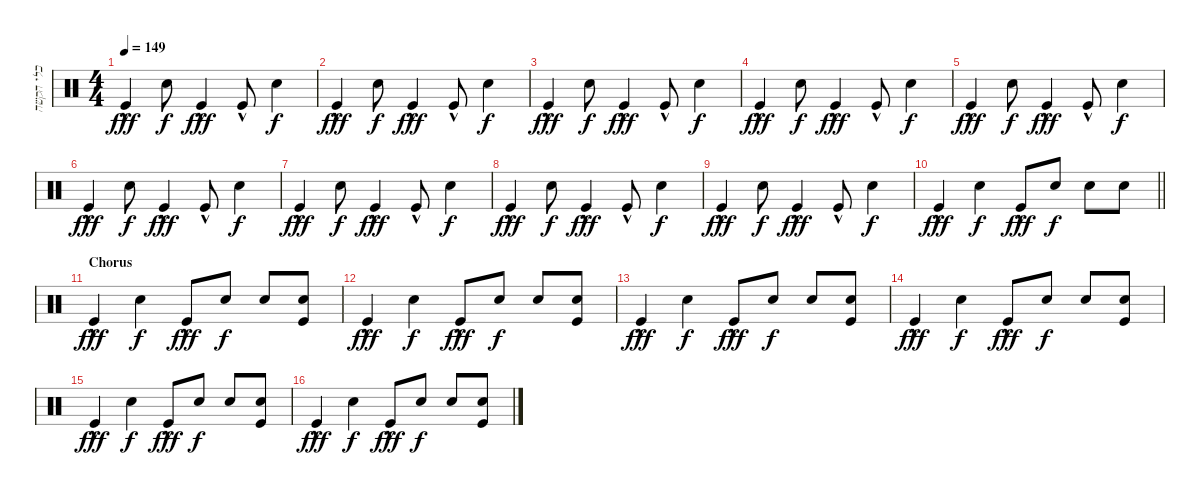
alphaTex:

\track ("כלי הקשה" "כלי הקשה") {instrument percussion}
\staff {score}
\articulation defaults
\ts (4 4)
\tempo 149
\clef neutral
\ks c "Kick (hit)"{hac}.4{dy fff} "Electric Snare (hit)".8{dy f} "Kick (hit)"{hac}.4{dy fff} "Kick (hit)"{hac}.8 "Electric Snare (hit)".4{dy f}
|
"Kick (hit)"{hac}.4{dy fff} "Electric Snare (hit)".8{dy f} "Kick (hit)"{hac}.4{dy fff} "Kick (hit)"{hac}.8 "Electric Snare (hit)".4{dy f} |
"Kick (hit)"{hac}.4{dy fff} "Electric Snare (hit)".8{dy f} "Kick (hit)"{hac}.4{dy fff} "Kick (hit)"{hac}.8 "Electric Snare (hit)".4{dy f} |
"Kick (hit)"{hac}.4{dy fff} "Electric Snare (hit)".8{dy f} "Kick (hit)"{hac}.4{dy fff} "Kick (hit)"{hac}.8 "Electric Snare (hit)".4{dy f} |
"Kick (hit)"{hac}.4{dy fff} "Electric Snare (hit)".8{dy f} "Kick (hit)"{hac}.4{dy fff} "Kick (hit)"{hac}.8 "Electric Snare (hit)".4{dy f} |
"Kick (hit)"{hac}.4{dy fff} "Electric Snare (hit)".8{dy f} "Kick (hit)"{hac}.4{dy fff} "Kick (hit)"{hac}.8 "Electric Snare (hit)".4{dy f} |
"Kick (hit)"{hac}.4{dy fff} "Electric Snare (hit)".8{dy f} "Kick (hit)"{hac}.4{dy fff} "Kick (hit)"{hac}.8 "Electric Snare (hit)".4{dy f} |
"Kick (hit)"{hac}.4{dy fff} "Electric Snare (hit)".8{dy f} "Kick (hit)"{hac}.4{dy fff} "Kick (hit)"{hac}.8 "Electric Snare (hit)".4{dy f} |
"Kick (hit)"{hac}.4{dy fff} "Electric Snare (hit)".8{dy f} "Kick (hit)"{hac}.4{dy fff} "Kick (hit)"{hac}.8 "Electric Snare (hit)".4{dy f} |
\barLineRight lightlight "Kick (hit)"{hac}.4{dy fff} "Electric Snare (hit)".4{dy f} "Kick (hit)"{hac}.8{dy fff} "Electric Snare (hit)".8{dy f} "Electric Snare (hit)".8 "Electric Snare (hit)".8
|
\section ("" "Chorus")
"Kick (hit)"{hac}.4{dy fff} "Electric Snare (hit)".4{dy f} "Kick (hit)"{hac}.8{dy fff} "Electric Snare (hit)".8{dy f} "Electric Snare (hit)".8 ("Electric Snare (hit)" "Kick (hit)").8 |
"Kick (hit)"{hac}.4{dy fff} "Electric Snare (hit)".4{dy f} "Kick (hit)"{hac}.8{dy fff} "Electric Snare (hit)".8{dy f} "Electric Snare (hit)".8 ("Electric Snare (hit)" "Kick (hit)").8 |
"Kick (hit)"{hac}.4{dy fff} "Electric Snare (hit)".4{dy f} "Kick (hit)"{hac}.8{dy fff} "Electric Snare (hit)".8{dy f} "Electric Snare (hit)".8 ("Electric Snare (hit)" "Kick (hit)").8 |
"Kick (hit)"{hac}.4{dy fff} "Electric Snare (hit)".4{dy f} "Kick (hit)"{hac}.8{dy fff} "Electric Snare (hit)".8{dy f} "Electric Snare (hit)".8 ("Electric Snare (hit)" "Kick (hit)").8 |
"Kick (hit)"{hac}.4{dy fff} "Electric Snare (hit)".4{dy f} "Kick (hit)"{hac}.8{dy fff} "Electric Snare (hit)".8{dy f} "Electric Snare (hit)".8 ("Electric Snare (hit)" "Kick (hit)").8 |
"Kick (hit)"{hac}.4{dy fff} "Electric Snare (hit)".4{dy f} "Kick (hit)"{hac}.8{dy fff} "Electric Snare (hit)".8{dy f} "Electric Snare (hit)".8 ("Electric Snare (hit)" "Kick (hit)").8
